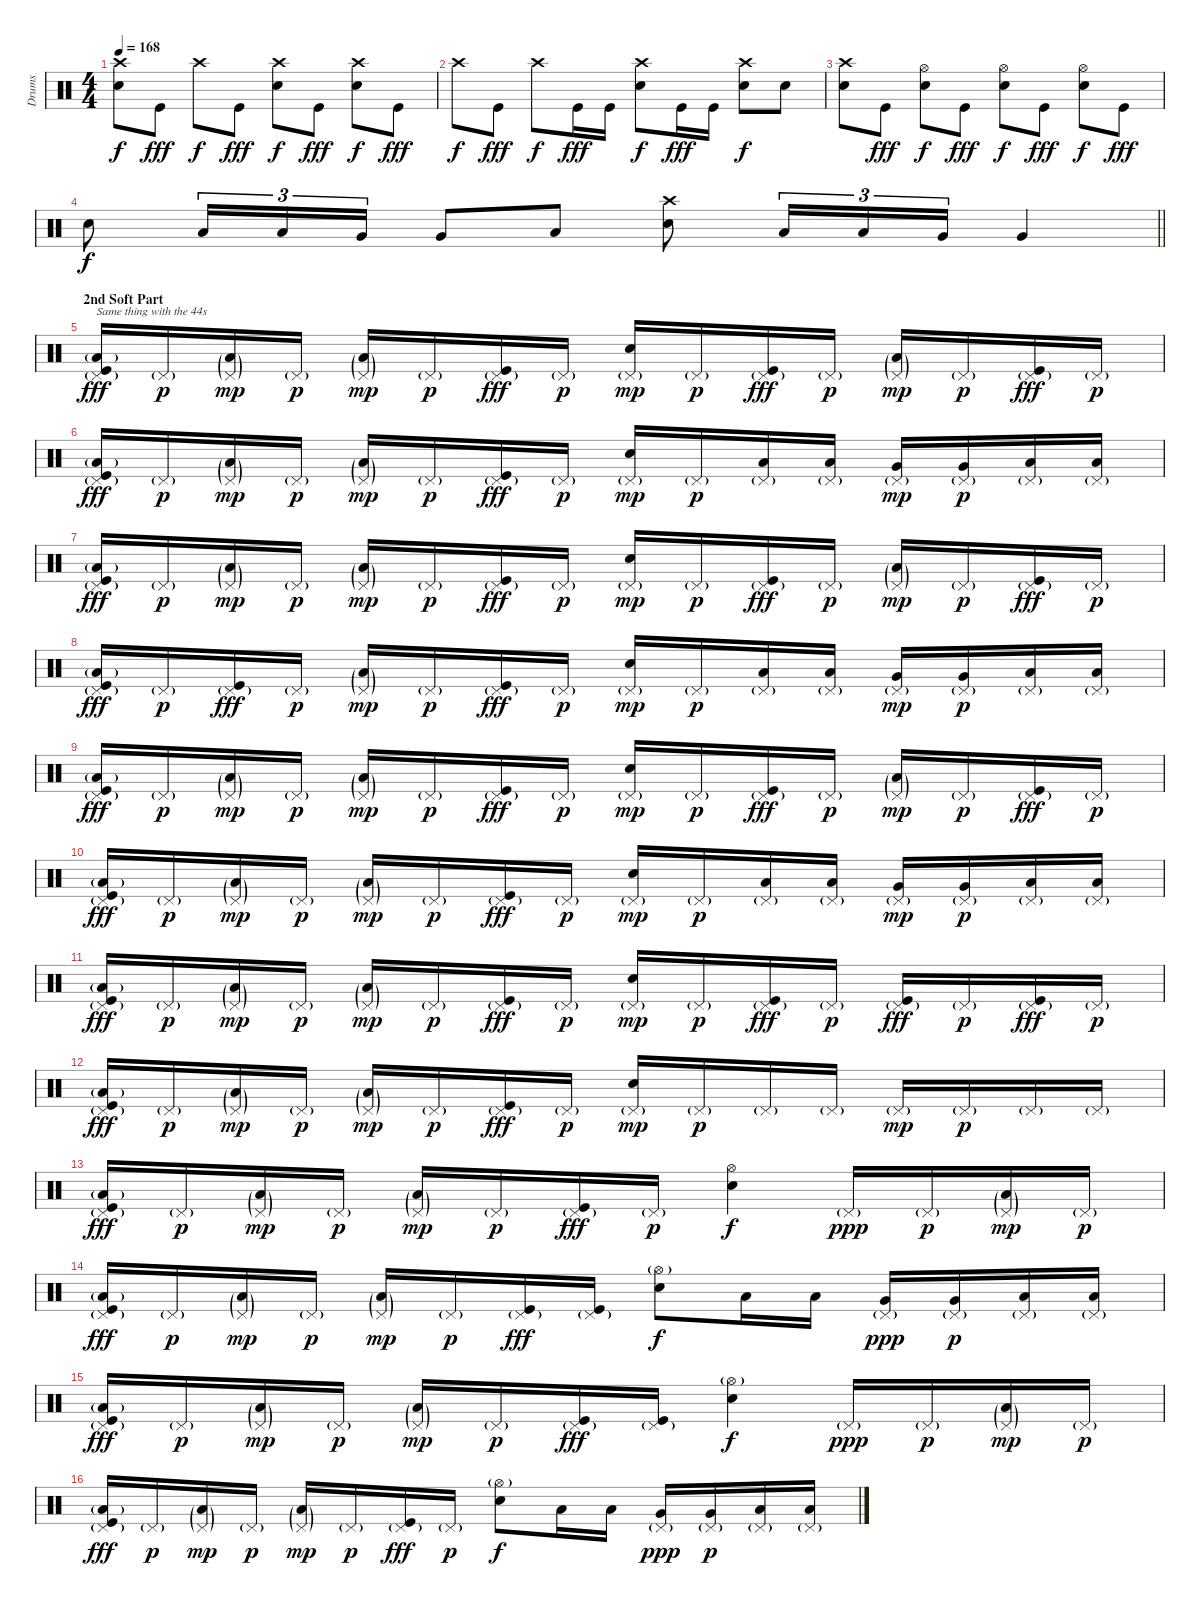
\track ("Drums" "Drums") {instrument percussion}
\staff {score}
\articulation defaults
\ts (4 4)
\tempo 168
\clef neutral
\ks c
("Crash high (hit)" "Snare (hit) 2").8{dy f} "Kick (hit)".8{dy fff} "Crash high (hit)".8{dy f} "Kick (hit)".8{dy fff} ("Crash high (hit)" "Snare (hit) 2").8{dy f} "Kick (hit)".8{dy fff} ("Crash high (hit)" "Snare (hit) 2").8{dy f} "Kick (hit)".8{dy fff} |
"Crash high (hit)".8{dy f} "Kick (hit)".8{dy fff} "Crash high (hit)".8{dy f} "Kick (hit)".16{dy fff} "Kick (hit)".16 ("Crash high (hit)" "Snare (hit) 2").8{dy f} "Kick (hit)".16{dy fff} "Kick (hit)".16 ("Crash high (hit)" "Snare (hit) 2").8{dy f} "Snare (hit) 2".8 |
("Crash high (hit)" "Snare (hit) 2").8 "Kick (hit)".8{dy fff} ("Hi-Hat (open)" "Snare (hit) 2").8{dy f} "Kick (hit)".8{dy fff} ("Hi-Hat (open)" "Snare (hit) 2").8{dy f} "Kick (hit)".8{dy fff} ("Hi-Hat (open)" "Snare (hit) 2").8{dy f} "Kick (hit)".8{dy fff} |
\barLineRight lightlight "Snare (hit) 2".8{dy f} "Low Tom (hit)".16{tu (3 2)} "Low Tom (hit)".16{tu (3 2)} "Very Low Tom (hit)".16{tu (3 2)} "Very Low Tom (hit)".8 "Low Floor Tom (hit)".8
("Crash high (hit)" "Snare (hit) 2").8 "Low Tom (hit)".16{tu (3 2)} "Low Tom (hit)".16{tu (3 2)} "Very Low Tom (hit)".16{tu (3 2)} "Very Low Tom (hit)".4 |
\section ("" "2nd Soft Part")
("Pedal Hi-Hat (hit)"{g} "Low Floor Tom (hit)"{g} "Kick (hit)").16{txt "Same thing with the 44s" dy fff} "Pedal Hi-Hat (hit)"{g}.16{dy p} ("Pedal Hi-Hat (hit)"{g} "Low Floor Tom (hit)"{g}).16{dy mp} "Pedal Hi-Hat (hit)"{g}.16{dy p} ("Pedal Hi-Hat (hit)"{g} "Low Floor Tom (hit)"{g}).16{dy mp} "Pedal Hi-Hat (hit)"{g}.16{dy p} ("Pedal Hi-Hat (hit)"{g} "Kick (hit)").16{dy fff} "Pedal Hi-Hat (hit)"{g}.16{dy p} ("Pedal Hi-Hat (hit)"{g} "Snare (hit) 2").16{dy mp} "Pedal Hi-Hat (hit)"{g}.16{dy p} ("Pedal Hi-Hat (hit)"{g} "Kick (hit)").16{dy fff} "Pedal Hi-Hat (hit)"{g}.16{dy p} ("Pedal Hi-Hat (hit)"{g} "Low Floor Tom (hit)"{g}).16{dy mp} "Pedal Hi-Hat (hit)"{g}.16{dy p} ("Pedal Hi-Hat (hit)"{g} "Kick (hit)").16{dy fff} "Pedal Hi-Hat (hit)"{g}.16{dy p} |
("Pedal Hi-Hat (hit)"{g} "Low Floor Tom (hit)"{g} "Kick (hit)").16{dy fff} "Pedal Hi-Hat (hit)"{g}.16{dy p} ("Pedal Hi-Hat (hit)"{g} "Low Floor Tom (hit)"{g}).16{dy mp} "Pedal Hi-Hat (hit)"{g}.16{dy p} ("Pedal Hi-Hat (hit)"{g} "Low Floor Tom (hit)"{g}).16{dy mp} "Pedal Hi-Hat (hit)"{g}.16{dy p} ("Pedal Hi-Hat (hit)"{g} "Kick (hit)").16{dy fff} "Pedal Hi-Hat (hit)"{g}.16{dy p} ("Pedal Hi-Hat (hit)"{g} "Snare (hit) 2").16{dy mp} "Pedal Hi-Hat (hit)"{g}.16{dy p} ("Pedal Hi-Hat (hit)"{g} "Low Tom (hit)").16 ("Pedal Hi-Hat (hit)"{g} "Low Tom (hit)").16 ("Pedal Hi-Hat (hit)"{g} "Very Low Tom (hit)").16{dy mp} ("Pedal Hi-Hat (hit)"{g} "Very Low Tom (hit)").16{dy p} ("Pedal Hi-Hat (hit)"{g} "Low Floor Tom (hit)").16 ("Pedal Hi-Hat (hit)"{g} "Low Floor Tom (hit)").16 |
("Pedal Hi-Hat (hit)"{g} "Low Floor Tom (hit)"{g} "Kick (hit)").16{dy fff} "Pedal Hi-Hat (hit)"{g}.16{dy p} ("Pedal Hi-Hat (hit)"{g} "Low Floor Tom (hit)"{g}).16{dy mp} "Pedal Hi-Hat (hit)"{g}.16{dy p} ("Pedal Hi-Hat (hit)"{g} "Low Floor Tom (hit)"{g}).16{dy mp} "Pedal Hi-Hat (hit)"{g}.16{dy p} ("Pedal Hi-Hat (hit)"{g} "Kick (hit)").16{dy fff} "Pedal Hi-Hat (hit)"{g}.16{dy p} ("Pedal Hi-Hat (hit)"{g} "Snare (hit) 2").16{dy mp} "Pedal Hi-Hat (hit)"{g}.16{dy p} ("Pedal Hi-Hat (hit)"{g} "Kick (hit)").16{dy fff} "Pedal Hi-Hat (hit)"{g}.16{dy p} ("Pedal Hi-Hat (hit)"{g} "Low Floor Tom (hit)"{g}).16{dy mp} "Pedal Hi-Hat (hit)"{g}.16{dy p} ("Pedal Hi-Hat (hit)"{g} "Kick (hit)").16{dy fff} "Pedal Hi-Hat (hit)"{g}.16{dy p} |
("Pedal Hi-Hat (hit)"{g} "Low Floor Tom (hit)"{g} "Kick (hit)").16{dy fff} "Pedal Hi-Hat (hit)"{g}.16{dy p} ("Pedal Hi-Hat (hit)"{g} "Kick (hit)").16{dy fff} "Pedal Hi-Hat (hit)"{g}.16{dy p} ("Pedal Hi-Hat (hit)"{g} "Low Floor Tom (hit)"{g}).16{dy mp} "Pedal Hi-Hat (hit)"{g}.16{dy p} ("Pedal Hi-Hat (hit)"{g} "Kick (hit)").16{dy fff} "Pedal Hi-Hat (hit)"{g}.16{dy p} ("Pedal Hi-Hat (hit)"{g} "Snare (hit) 2").16{dy mp} "Pedal Hi-Hat (hit)"{g}.16{dy p} ("Pedal Hi-Hat (hit)"{g} "Low Tom (hit)").16 ("Pedal Hi-Hat (hit)"{g} "Low Tom (hit)").16 ("Pedal Hi-Hat (hit)"{g} "Very Low Tom (hit)").16{dy mp} ("Pedal Hi-Hat (hit)"{g} "Very Low Tom (hit)").16{dy p} ("Pedal Hi-Hat (hit)"{g} "Low Floor Tom (hit)").16 ("Pedal Hi-Hat (hit)"{g} "Low Floor Tom (hit)").16 |
("Pedal Hi-Hat (hit)"{g} "Low Floor Tom (hit)"{g} "Kick (hit)").16{dy fff} "Pedal Hi-Hat (hit)"{g}.16{dy p} ("Pedal Hi-Hat (hit)"{g} "Low Floor Tom (hit)"{g}).16{dy mp} "Pedal Hi-Hat (hit)"{g}.16{dy p} ("Pedal Hi-Hat (hit)"{g} "Low Floor Tom (hit)"{g}).16{dy mp} "Pedal Hi-Hat (hit)"{g}.16{dy p} ("Pedal Hi-Hat (hit)"{g} "Kick (hit)").16{dy fff} "Pedal Hi-Hat (hit)"{g}.16{dy p} ("Pedal Hi-Hat (hit)"{g} "Snare (hit) 2").16{dy mp} "Pedal Hi-Hat (hit)"{g}.16{dy p} ("Pedal Hi-Hat (hit)"{g} "Kick (hit)").16{dy fff} "Pedal Hi-Hat (hit)"{g}.16{dy p} ("Pedal Hi-Hat (hit)"{g} "Low Floor Tom (hit)"{g}).16{dy mp} "Pedal Hi-Hat (hit)"{g}.16{dy p} ("Pedal Hi-Hat (hit)"{g} "Kick (hit)").16{dy fff} "Pedal Hi-Hat (hit)"{g}.16{dy p} |
("Pedal Hi-Hat (hit)"{g} "Low Floor Tom (hit)"{g} "Kick (hit)").16{dy fff} "Pedal Hi-Hat (hit)"{g}.16{dy p} ("Pedal Hi-Hat (hit)"{g} "Low Floor Tom (hit)"{g}).16{dy mp} "Pedal Hi-Hat (hit)"{g}.16{dy p} ("Pedal Hi-Hat (hit)"{g} "Low Floor Tom (hit)"{g}).16{dy mp} "Pedal Hi-Hat (hit)"{g}.16{dy p} ("Pedal Hi-Hat (hit)"{g} "Kick (hit)").16{dy fff} "Pedal Hi-Hat (hit)"{g}.16{dy p} ("Pedal Hi-Hat (hit)"{g} "Snare (hit) 2").16{dy mp} "Pedal Hi-Hat (hit)"{g}.16{dy p} ("Pedal Hi-Hat (hit)"{g} "Low Tom (hit)").16 ("Pedal Hi-Hat (hit)"{g} "Low Tom (hit)").16 ("Pedal Hi-Hat (hit)"{g} "Very Low Tom (hit)").16{dy mp} ("Pedal Hi-Hat (hit)"{g} "Very Low Tom (hit)").16{dy p} ("Pedal Hi-Hat (hit)"{g} "Low Floor Tom (hit)").16 ("Pedal Hi-Hat (hit)"{g} "Low Floor Tom (hit)").16 |
("Pedal Hi-Hat (hit)"{g} "Low Floor Tom (hit)"{g} "Kick (hit)").16{dy fff} "Pedal Hi-Hat (hit)"{g}.16{dy p} ("Pedal Hi-Hat (hit)"{g} "Low Floor Tom (hit)"{g}).16{dy mp} "Pedal Hi-Hat (hit)"{g}.16{dy p} ("Pedal Hi-Hat (hit)"{g} "Low Floor Tom (hit)"{g}).16{dy mp} "Pedal Hi-Hat (hit)"{g}.16{dy p} ("Pedal Hi-Hat (hit)"{g} "Kick (hit)").16{dy fff} "Pedal Hi-Hat (hit)"{g}.16{dy p} ("Pedal Hi-Hat (hit)"{g} "Snare (hit) 2").16{dy mp} "Pedal Hi-Hat (hit)"{g}.16{dy p} ("Pedal Hi-Hat (hit)"{g} "Kick (hit)").16{dy fff} "Pedal Hi-Hat (hit)"{g}.16{dy p} ("Pedal Hi-Hat (hit)"{g} "Kick (hit)").16{dy fff} "Pedal Hi-Hat (hit)"{g}.16{dy p} ("Pedal Hi-Hat (hit)"{g} "Kick (hit)").16{dy fff} "Pedal Hi-Hat (hit)"{g}.16{dy p} |
("Pedal Hi-Hat (hit)"{g} "Low Floor Tom (hit)"{g} "Kick (hit)").16{dy fff} "Pedal Hi-Hat (hit)"{g}.16{dy p} ("Pedal Hi-Hat (hit)"{g} "Low Floor Tom (hit)"{g}).16{dy mp} "Pedal Hi-Hat (hit)"{g}.16{dy p} ("Pedal Hi-Hat (hit)"{g} "Low Floor Tom (hit)"{g}).16{dy mp} "Pedal Hi-Hat (hit)"{g}.16{dy p} ("Pedal Hi-Hat (hit)"{g} "Kick (hit)").16{dy fff} "Pedal Hi-Hat (hit)"{g}.16{dy p} ("Pedal Hi-Hat (hit)"{g} "Snare (hit) 2").16{dy mp} "Pedal Hi-Hat (hit)"{g}.16{dy p} "Pedal Hi-Hat (hit)"{g}.16 "Pedal Hi-Hat (hit)"{g}.16 "Pedal Hi-Hat (hit)"{g}.16{dy mp} "Pedal Hi-Hat (hit)"{g}.16{dy p} "Pedal Hi-Hat (hit)"{g}.16 "Pedal Hi-Hat (hit)"{g}.16 |
("Pedal Hi-Hat (hit)"{g} "Low Floor Tom (hit)"{g} "Kick (hit)").16{dy fff} "Pedal Hi-Hat (hit)"{g}.16{dy p} ("Pedal Hi-Hat (hit)"{g} "Low Floor Tom (hit)"{g}).16{dy mp} "Pedal Hi-Hat (hit)"{g}.16{dy p} ("Pedal Hi-Hat (hit)"{g} "Low Floor Tom (hit)"{g}).16{dy mp} "Pedal Hi-Hat (hit)"{g}.16{dy p} ("Pedal Hi-Hat (hit)"{g} "Kick (hit)").16{dy fff} "Pedal Hi-Hat (hit)"{g}.16{dy p} ("Hi-Hat (open)" "Snare (hit) 2").4{dy f} "Pedal Hi-Hat (hit)"{g}.16{dy ppp} "Pedal Hi-Hat (hit)"{g}.16{dy p} ("Pedal Hi-Hat (hit)"{g} "Low Floor Tom (hit)"{g}).16{dy mp} "Pedal Hi-Hat (hit)"{g}.16{dy p} |
("Pedal Hi-Hat (hit)"{g} "Low Floor Tom (hit)"{g} "Kick (hit)").16{dy fff} "Pedal Hi-Hat (hit)"{g}.16{dy p} ("Pedal Hi-Hat (hit)"{g} "Low Floor Tom (hit)"{g}).16{dy mp} "Pedal Hi-Hat (hit)"{g}.16{dy p} ("Pedal Hi-Hat (hit)"{g} "Low Floor Tom (hit)"{g}).16{dy mp} "Pedal Hi-Hat (hit)"{g}.16{dy p} ("Pedal Hi-Hat (hit)"{g} "Kick (hit)").16{dy fff} ("Pedal Hi-Hat (hit)"{g} "Kick (hit)").16 ("Hi-Hat (open)"{g} "Snare (hit) 2").8{dy f} "Low Tom (hit)".16 "Low Tom (hit)".16 ("Pedal Hi-Hat (hit)"{g} "Very Low Tom (hit)").16{dy ppp} ("Pedal Hi-Hat (hit)"{g} "Very Low Tom (hit)").16{dy p} ("Pedal Hi-Hat (hit)"{g} "Low Floor Tom (hit)").16 ("Pedal Hi-Hat (hit)"{g} "Low Floor Tom (hit)").16 |
("Pedal Hi-Hat (hit)"{g} "Low Floor Tom (hit)"{g} "Kick (hit)").16{dy fff} "Pedal Hi-Hat (hit)"{g}.16{dy p} ("Pedal Hi-Hat (hit)"{g} "Low Floor Tom (hit)"{g}).16{dy mp} "Pedal Hi-Hat (hit)"{g}.16{dy p} ("Pedal Hi-Hat (hit)"{g} "Low Floor Tom (hit)"{g}).16{dy mp} "Pedal Hi-Hat (hit)"{g}.16{dy p} ("Pedal Hi-Hat (hit)"{g} "Kick (hit)").16{dy fff} ("Pedal Hi-Hat (hit)"{g} "Kick (hit)").16 ("Hi-Hat (open)"{g} "Snare (hit) 2").4{dy f} "Pedal Hi-Hat (hit)"{g}.16{dy ppp} "Pedal Hi-Hat (hit)"{g}.16{dy p} ("Pedal Hi-Hat (hit)"{g} "Low Floor Tom (hit)"{g}).16{dy mp} "Pedal Hi-Hat (hit)"{g}.16{dy p} |
("Pedal Hi-Hat (hit)"{g} "Low Floor Tom (hit)"{g} "Kick (hit)").16{dy fff} "Pedal Hi-Hat (hit)"{g}.16{dy p} ("Pedal Hi-Hat (hit)"{g} "Low Floor Tom (hit)"{g}).16{dy mp} "Pedal Hi-Hat (hit)"{g}.16{dy p} ("Pedal Hi-Hat (hit)"{g} "Low Floor Tom (hit)"{g}).16{dy mp} "Pedal Hi-Hat (hit)"{g}.16{dy p} ("Pedal Hi-Hat (hit)"{g} "Kick (hit)").16{dy fff} "Pedal Hi-Hat (hit)"{g}.16{dy p} ("Hi-Hat (open)"{g} "Snare (hit) 2").8{dy f} "Low Tom (hit)".16 "Low Tom (hit)".16 ("Pedal Hi-Hat (hit)"{g} "Very Low Tom (hit)").16{dy ppp} ("Pedal Hi-Hat (hit)"{g} "Very Low Tom (hit)").16{dy p} ("Pedal Hi-Hat (hit)"{g} "Low Floor Tom (hit)").16 ("Pedal Hi-Hat (hit)"{g} "Low Floor Tom (hit)").16
